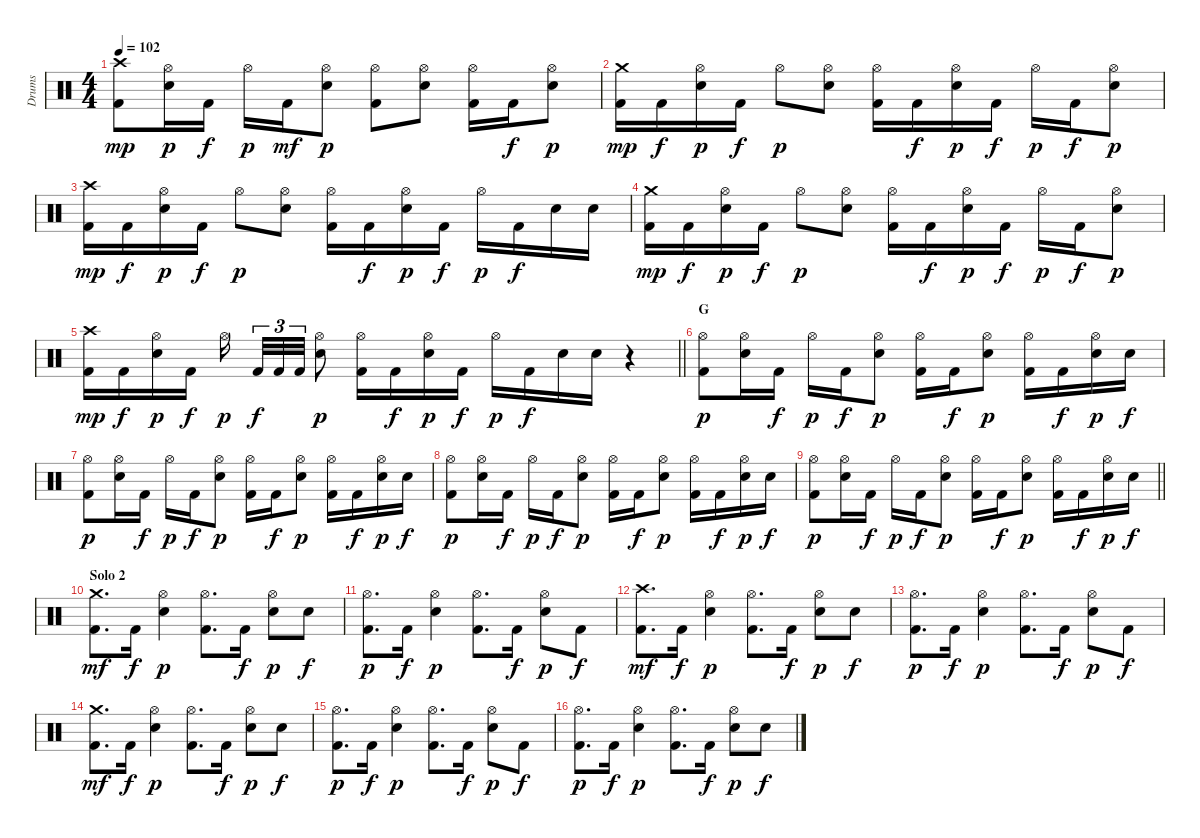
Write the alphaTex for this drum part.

\track ("Drums" "Drums") {instrument percussion}
\staff {score}
\articulation defaults
\ts (4 4)
\tempo 102
\clef neutral
\ks c
("Crash high (hit)" "Kick (hit) 2").8{dy mp} ("Hi-Hat (open)" "Electric Snare (hit)").16{dy p} "Kick (hit) 2".16{dy f} "Hi-Hat (open)".16{dy p} "Kick (hit) 2".16{dy mf} ("Hi-Hat (open)" "Electric Snare (hit)").8{dy p} ("Hi-Hat (open)" "Kick (hit) 2").8 ("Hi-Hat (open)" "Electric Snare (hit)").8 ("Hi-Hat (open)" "Kick (hit) 2").16 "Kick (hit) 2".16{dy f} ("Hi-Hat (open)" "Electric Snare (hit)").8{dy p} |
("Crash medium (hit)" "Kick (hit) 2").16{dy mp} "Kick (hit) 2".16{dy f} ("Hi-Hat (open)" "Electric Snare (hit)").16{dy p} "Kick (hit) 2".16{dy f} "Hi-Hat (open)".8{dy p} ("Hi-Hat (open)" "Electric Snare (hit)").8 ("Hi-Hat (open)" "Kick (hit) 2").16 "Kick (hit) 2".16{dy f} ("Hi-Hat (open)" "Electric Snare (hit)").16{dy p} "Kick (hit) 2".16{dy f} "Hi-Hat (open)".16{dy p} "Kick (hit) 2".16{dy f} ("Hi-Hat (open)" "Electric Snare (hit)").8{dy p} |
("Crash high (hit)" "Kick (hit) 2").16{dy mp} "Kick (hit) 2".16{dy f} ("Hi-Hat (open)" "Electric Snare (hit)").16{dy p} "Kick (hit) 2".16{dy f} "Hi-Hat (open)".8{dy p} ("Hi-Hat (open)" "Electric Snare (hit)").8 ("Hi-Hat (open)" "Kick (hit) 2").16 "Kick (hit) 2".16{dy f} ("Hi-Hat (open)" "Electric Snare (hit)").16{dy p} "Kick (hit) 2".16{dy f} "Hi-Hat (open)".16{dy p} "Kick (hit) 2".16{dy f} "Electric Snare (hit)".16 "Electric Snare (hit)".16 |
("Crash medium (hit)" "Kick (hit) 2").16{dy mp} "Kick (hit) 2".16{dy f} ("Hi-Hat (open)" "Electric Snare (hit)").16{dy p} "Kick (hit) 2".16{dy f} "Hi-Hat (open)".8{dy p} ("Hi-Hat (open)" "Electric Snare (hit)").8 ("Hi-Hat (open)" "Kick (hit) 2").16 "Kick (hit) 2".16{dy f} ("Hi-Hat (open)" "Electric Snare (hit)").16{dy p} "Kick (hit) 2".16{dy f} "Hi-Hat (open)".16{dy p} "Kick (hit) 2".16{dy f} ("Hi-Hat (open)" "Electric Snare (hit)").8{dy p} |
\barLineRight lightlight
("Crash high (hit)" "Kick (hit) 2").16{dy mp} "Kick (hit) 2".16{dy f} ("Hi-Hat (open)" "Electric Snare (hit)").16{dy p} "Kick (hit) 2".16{dy f} "Hi-Hat (open)".16{dy p beam splitsecondary} "Kick (hit) 2".32{tu (3 2) dy f} "Kick (hit) 2".32{tu (3 2)} "Kick (hit) 2".32{tu (3 2)} ("Hi-Hat (open)" "Electric Snare (hit)").8{dy p} ("Hi-Hat (open)" "Kick (hit) 2").16 "Kick (hit) 2".16{dy f} ("Hi-Hat (open)" "Electric Snare (hit)").16{dy p} "Kick (hit) 2".16{dy f} "Hi-Hat (open)".16{dy p} "Kick (hit) 2".16{dy f} "Electric Snare (hit)".16 "Electric Snare (hit)".16 r.4 |
\section ("" "G")
("Hi-Hat (open)" "Kick (hit) 2").8{dy p} ("Hi-Hat (open)" "Electric Snare (hit)").16 "Kick (hit) 2".16{dy f} "Hi-Hat (open)".16{dy p} "Kick (hit) 2".16{dy f} ("Hi-Hat (open)" "Electric Snare (hit)").8{dy p} ("Hi-Hat (open)" "Kick (hit) 2").16 "Kick (hit) 2".16{dy f} ("Hi-Hat (open)" "Electric Snare (hit)").8{dy p} ("Hi-Hat (open)" "Kick (hit) 2").16 "Kick (hit) 2".16{dy f} ("Hi-Hat (open)" "Electric Snare (hit)").16{dy p} "Electric Snare (hit)".16{dy f} |
("Hi-Hat (open)" "Kick (hit) 2").8{dy p} ("Hi-Hat (open)" "Electric Snare (hit)").16 "Kick (hit) 2".16{dy f} "Hi-Hat (open)".16{dy p} "Kick (hit) 2".16{dy f} ("Hi-Hat (open)" "Electric Snare (hit)").8{dy p} ("Hi-Hat (open)" "Kick (hit) 2").16 "Kick (hit) 2".16{dy f} ("Hi-Hat (open)" "Electric Snare (hit)").8{dy p} ("Hi-Hat (open)" "Kick (hit) 2").16 "Kick (hit) 2".16{dy f} ("Hi-Hat (open)" "Electric Snare (hit)").16{dy p} "Electric Snare (hit)".16{dy f} |
("Hi-Hat (open)" "Kick (hit) 2").8{dy p} ("Hi-Hat (open)" "Electric Snare (hit)").16 "Kick (hit) 2".16{dy f} "Hi-Hat (open)".16{dy p} "Kick (hit) 2".16{dy f} ("Hi-Hat (open)" "Electric Snare (hit)").8{dy p} ("Hi-Hat (open)" "Kick (hit) 2").16 "Kick (hit) 2".16{dy f} ("Hi-Hat (open)" "Electric Snare (hit)").8{dy p} ("Hi-Hat (open)" "Kick (hit) 2").16 "Kick (hit) 2".16{dy f} ("Hi-Hat (open)" "Electric Snare (hit)").16{dy p} "Electric Snare (hit)".16{dy f} |
\barLineRight lightlight
("Hi-Hat (open)" "Kick (hit) 2").8{dy p} ("Hi-Hat (open)" "Electric Snare (hit)").16 "Kick (hit) 2".16{dy f} "Hi-Hat (open)".16{dy p} "Kick (hit) 2".16{dy f} ("Hi-Hat (open)" "Electric Snare (hit)").8{dy p} ("Hi-Hat (open)" "Kick (hit) 2").16 "Kick (hit) 2".16{dy f} ("Hi-Hat (open)" "Electric Snare (hit)").8{dy p} ("Hi-Hat (open)" "Kick (hit) 2").16 "Kick (hit) 2".16{dy f} ("Hi-Hat (open)" "Electric Snare (hit)").16{dy p} "Electric Snare (hit)".16{dy f} |
\section ("" "Solo 2")
("Crash medium (hit)" "Kick (hit) 2").8{d dy mf} "Kick (hit) 2".16{dy f} ("Hi-Hat (open)" "Electric Snare (hit)").4{dy p} ("Hi-Hat (open)" "Kick (hit) 2").8{d} "Kick (hit) 2".16{dy f} ("Hi-Hat (open)" "Electric Snare (hit)").8{dy p} "Electric Snare (hit)".8{dy f} |
("Hi-Hat (open)" "Kick (hit) 2").8{d dy p} "Kick (hit) 2".16{dy f} ("Hi-Hat (open)" "Electric Snare (hit)").4{dy p} ("Hi-Hat (open)" "Kick (hit) 2").8{d} "Kick (hit) 2".16{dy f} ("Hi-Hat (open)" "Electric Snare (hit)").8{dy p} "Kick (hit) 2".8{dy f} |
("Crash high (hit)" "Kick (hit) 2").8{d dy mf} "Kick (hit) 2".16{dy f} ("Hi-Hat (open)" "Electric Snare (hit)").4{dy p} ("Hi-Hat (open)" "Kick (hit) 2").8{d} "Kick (hit) 2".16{dy f} ("Hi-Hat (open)" "Electric Snare (hit)").8{dy p} "Electric Snare (hit)".8{dy f} |
("Hi-Hat (open)" "Kick (hit) 2").8{d dy p} "Kick (hit) 2".16{dy f} ("Hi-Hat (open)" "Electric Snare (hit)").4{dy p} ("Hi-Hat (open)" "Kick (hit) 2").8{d} "Kick (hit) 2".16{dy f} ("Hi-Hat (open)" "Electric Snare (hit)").8{dy p} "Kick (hit) 2".8{dy f} |
("Crash medium (hit)" "Kick (hit) 2").8{d dy mf} "Kick (hit) 2".16{dy f} ("Hi-Hat (open)" "Electric Snare (hit)").4{dy p} ("Hi-Hat (open)" "Kick (hit) 2").8{d} "Kick (hit) 2".16{dy f} ("Hi-Hat (open)" "Electric Snare (hit)").8{dy p} "Electric Snare (hit)".8{dy f} |
("Hi-Hat (open)" "Kick (hit) 2").8{d dy p} "Kick (hit) 2".16{dy f} ("Hi-Hat (open)" "Electric Snare (hit)").4{dy p} ("Hi-Hat (open)" "Kick (hit) 2").8{d} "Kick (hit) 2".16{dy f} ("Hi-Hat (open)" "Electric Snare (hit)").8{dy p} "Kick (hit) 2".8{dy f} |
("Hi-Hat (open)" "Kick (hit) 2").8{d dy p} "Kick (hit) 2".16{dy f} ("Hi-Hat (open)" "Electric Snare (hit)").4{dy p} ("Hi-Hat (open)" "Kick (hit) 2").8{d} "Kick (hit) 2".16{dy f} ("Hi-Hat (open)" "Electric Snare (hit)").8{dy p} "Electric Snare (hit)".8{dy f}
